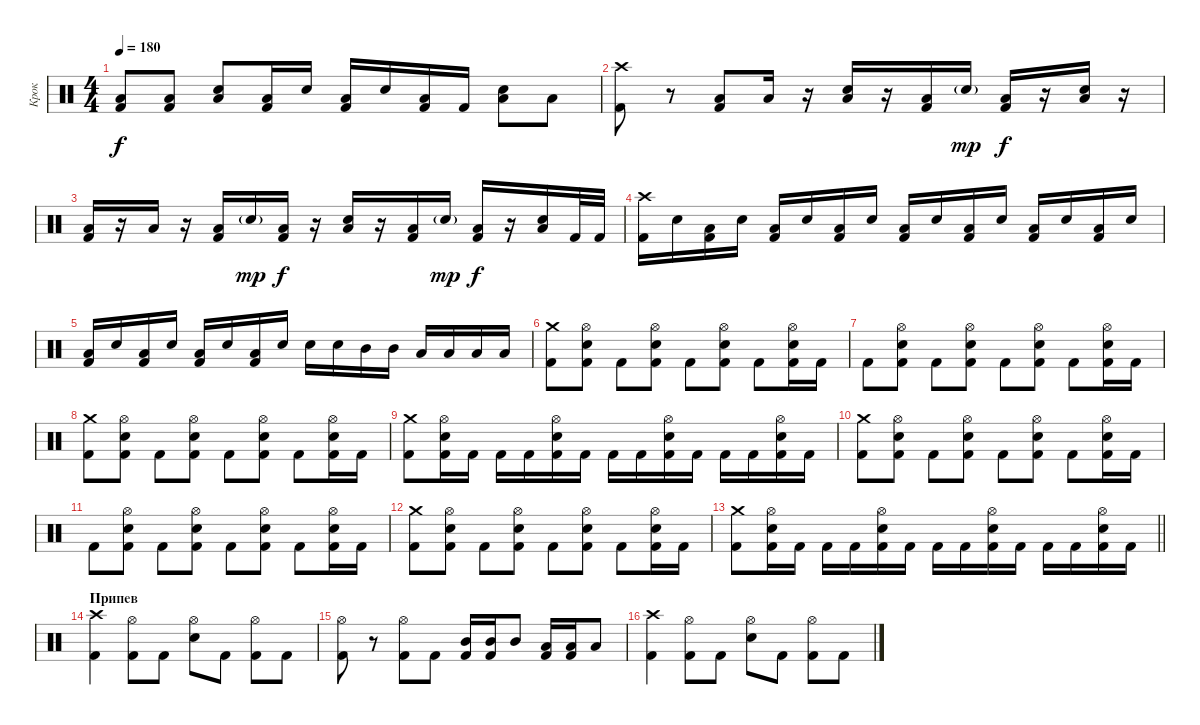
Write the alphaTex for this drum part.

\track ("Крок" "Крок") {instrument percussion}
\staff {score}
\articulation defaults
\ts (4 4)
\tempo 180
\clef neutral
\ks c
("Kick (hit) 2" "Low Tom (hit)").8{dy f} ("Kick (hit) 2" "Low Tom (hit)").8 ("Electric Snare (hit)" "Low Tom (hit)").8 ("Kick (hit) 2" "Low Tom (hit)").16 "Electric Snare (hit)".16 ("Kick (hit) 2" "Low Tom (hit)").16 "Electric Snare (hit)".16 ("Kick (hit) 2" "Low Tom (hit)").16 "Kick (hit) 2".16 ("Electric Snare (hit)" "Low Tom (hit)").8 "Low Tom (hit)".8 |
("Crash high (hit)" "Kick (hit) 2").8 r.8 ("Kick (hit) 2" "Low Floor Tom (hit)").8 "Low Floor Tom (hit)".16 r.16 ("Electric Snare (hit)" "Low Floor Tom (hit)").16 r.16 ("Kick (hit) 2" "Low Floor Tom (hit)").16 "Electric Snare (hit)"{g}.16{dy mp} ("Kick (hit) 2" "Low Floor Tom (hit)").16{dy f} r.16 ("Electric Snare (hit)" "Low Floor Tom (hit)").16 r.16 |
("Kick (hit) 2" "Low Floor Tom (hit)").16 r.16 "Low Floor Tom (hit)".16 r.16 ("Kick (hit) 2" "Low Floor Tom (hit)").16 "Electric Snare (hit)"{g}.16{dy mp} ("Kick (hit) 2" "Low Floor Tom (hit)").16{dy f} r.16 ("Electric Snare (hit)" "Low Floor Tom (hit)").16 r.16 ("Kick (hit) 2" "Low Floor Tom (hit)").16 "Electric Snare (hit)"{g}.16{dy mp} ("Kick (hit) 2" "Low Floor Tom (hit)").16{dy f} r.16 ("Electric Snare (hit)" "Low Floor Tom (hit)").16 "Kick (hit) 2".32 "Kick (hit) 2".32 |
("Kick (hit) 2" "Crash high (hit)").16 "Electric Snare (hit)".16 ("Kick (hit) 2" "Low Floor Tom (hit)").16 "Electric Snare (hit)".16 ("Kick (hit) 2" "Low Floor Tom (hit)").16 "Electric Snare (hit)".16 ("Kick (hit) 2" "Low Floor Tom (hit)").16 "Electric Snare (hit)".16 ("Kick (hit) 2" "Low Floor Tom (hit)").16 "Electric Snare (hit)".16 ("Kick (hit) 2" "Low Floor Tom (hit)").16 "Electric Snare (hit)".16 ("Kick (hit) 2" "Low Floor Tom (hit)").16 "Electric Snare (hit)".16 ("Kick (hit) 2" "Low Floor Tom (hit)").16 "Electric Snare (hit)".16 |
("Kick (hit) 2" "Low Floor Tom (hit)").16 "Electric Snare (hit)".16 ("Kick (hit) 2" "Low Floor Tom (hit)").16 "Electric Snare (hit)".16 ("Kick (hit) 2" "Low Floor Tom (hit)").16 "Electric Snare (hit)".16 ("Kick (hit) 2" "Low Floor Tom (hit)").16 "Electric Snare (hit)".16 "Electric Snare (hit)".16 "Electric Snare (hit)".16 "Mid Tom (hit)".16 "Mid Tom (hit)".16 "Low Tom (hit)".16 "Low Tom (hit)".16 "Low Tom (hit)".16 "Low Tom (hit)".16 |
("Kick (hit) 2" "Crash medium (hit)").8 ("Kick (hit) 2" "Electric Snare (hit)" "Hi-Hat (open)").8 "Kick (hit) 2".8 ("Kick (hit) 2" "Electric Snare (hit)" "Hi-Hat (open)").8 "Kick (hit) 2".8 ("Kick (hit) 2" "Electric Snare (hit)" "Hi-Hat (open)").8 "Kick (hit) 2".8 ("Kick (hit) 2" "Electric Snare (hit)" "Hi-Hat (open)").16 "Kick (hit) 2".16 |
"Kick (hit) 2".8 ("Kick (hit) 2" "Electric Snare (hit)" "Hi-Hat (open)").8 "Kick (hit) 2".8 ("Kick (hit) 2" "Electric Snare (hit)" "Hi-Hat (open)").8 "Kick (hit) 2".8 ("Kick (hit) 2" "Electric Snare (hit)" "Hi-Hat (open)").8 "Kick (hit) 2".8 ("Kick (hit) 2" "Electric Snare (hit)" "Hi-Hat (open)").16 "Kick (hit) 2".16 |
("Kick (hit) 2" "Crash medium (hit)").8 ("Kick (hit) 2" "Electric Snare (hit)" "Hi-Hat (open)").8 "Kick (hit) 2".8 ("Kick (hit) 2" "Electric Snare (hit)" "Hi-Hat (open)").8 "Kick (hit) 2".8 ("Kick (hit) 2" "Electric Snare (hit)" "Hi-Hat (open)").8 "Kick (hit) 2".8 ("Kick (hit) 2" "Electric Snare (hit)" "Hi-Hat (open)").16 "Kick (hit) 2".16 |
("Kick (hit) 2" "Crash medium (hit)").8 ("Kick (hit) 2" "Electric Snare (hit)" "Hi-Hat (open)").16 "Kick (hit) 2".16 "Kick (hit) 2".16 "Kick (hit) 2".16 ("Kick (hit) 2" "Electric Snare (hit)" "Hi-Hat (open)").16 "Kick (hit) 2".16 "Kick (hit) 2".16 "Kick (hit) 2".16 ("Kick (hit) 2" "Electric Snare (hit)" "Hi-Hat (open)").16 "Kick (hit) 2".16 "Kick (hit) 2".16 "Kick (hit) 2".16 ("Kick (hit) 2" "Electric Snare (hit)" "Hi-Hat (open)").16 "Kick (hit) 2".16 |
("Kick (hit) 2" "Crash medium (hit)").8 ("Kick (hit) 2" "Electric Snare (hit)" "Hi-Hat (open)").8 "Kick (hit) 2".8 ("Kick (hit) 2" "Electric Snare (hit)" "Hi-Hat (open)").8 "Kick (hit) 2".8 ("Kick (hit) 2" "Electric Snare (hit)" "Hi-Hat (open)").8 "Kick (hit) 2".8 ("Kick (hit) 2" "Electric Snare (hit)" "Hi-Hat (open)").16 "Kick (hit) 2".16 |
"Kick (hit) 2".8 ("Kick (hit) 2" "Electric Snare (hit)" "Hi-Hat (open)").8 "Kick (hit) 2".8 ("Kick (hit) 2" "Electric Snare (hit)" "Hi-Hat (open)").8 "Kick (hit) 2".8 ("Kick (hit) 2" "Electric Snare (hit)" "Hi-Hat (open)").8 "Kick (hit) 2".8 ("Kick (hit) 2" "Electric Snare (hit)" "Hi-Hat (open)").16 "Kick (hit) 2".16 |
("Kick (hit) 2" "Crash medium (hit)").8 ("Kick (hit) 2" "Electric Snare (hit)" "Hi-Hat (open)").8 "Kick (hit) 2".8 ("Kick (hit) 2" "Electric Snare (hit)" "Hi-Hat (open)").8 "Kick (hit) 2".8 ("Kick (hit) 2" "Electric Snare (hit)" "Hi-Hat (open)").8 "Kick (hit) 2".8 ("Kick (hit) 2" "Electric Snare (hit)" "Hi-Hat (open)").16 "Kick (hit) 2".16 |
\barLineRight lightlight
("Kick (hit) 2" "Crash medium (hit)").8 ("Kick (hit) 2" "Electric Snare (hit)" "Hi-Hat (open)").16 "Kick (hit) 2".16 "Kick (hit) 2".16 "Kick (hit) 2".16 ("Kick (hit) 2" "Electric Snare (hit)" "Hi-Hat (open)").16 "Kick (hit) 2".16 "Kick (hit) 2".16 "Kick (hit) 2".16 ("Kick (hit) 2" "Electric Snare (hit)" "Hi-Hat (open)").16 "Kick (hit) 2".16 "Kick (hit) 2".16 "Kick (hit) 2".16 ("Kick (hit) 2" "Electric Snare (hit)" "Hi-Hat (open)").16 "Kick (hit) 2".16 |
\section ("" "Припев")
("Kick (hit) 2" "Crash high (hit)").4 ("Kick (hit) 2" "Hi-Hat (open)").8 "Kick (hit) 2".8 ("Electric Snare (hit)" "Hi-Hat (open)").8 "Kick (hit) 2".8 ("Kick (hit) 2" "Hi-Hat (open)").8 "Kick (hit) 2".8 |
("Kick (hit) 2" "Hi-Hat (open)").8 r.8 ("Kick (hit) 2" "Hi-Hat (open)").8 "Kick (hit) 2".8 ("Mid Tom (hit)" "Kick (hit) 2").16 ("Mid Tom (hit)" "Kick (hit) 2").16 "Mid Tom (hit)".8 ("Low Tom (hit)" "Kick (hit) 2").16 ("Low Tom (hit)" "Kick (hit) 2").16 "Low Tom (hit)".8 |
("Kick (hit) 2" "Crash high (hit)").4 ("Kick (hit) 2" "Hi-Hat (open)").8 "Kick (hit) 2".8 ("Electric Snare (hit)" "Hi-Hat (open)").8 "Kick (hit) 2".8 ("Kick (hit) 2" "Hi-Hat (open)").8 "Kick (hit) 2".8
